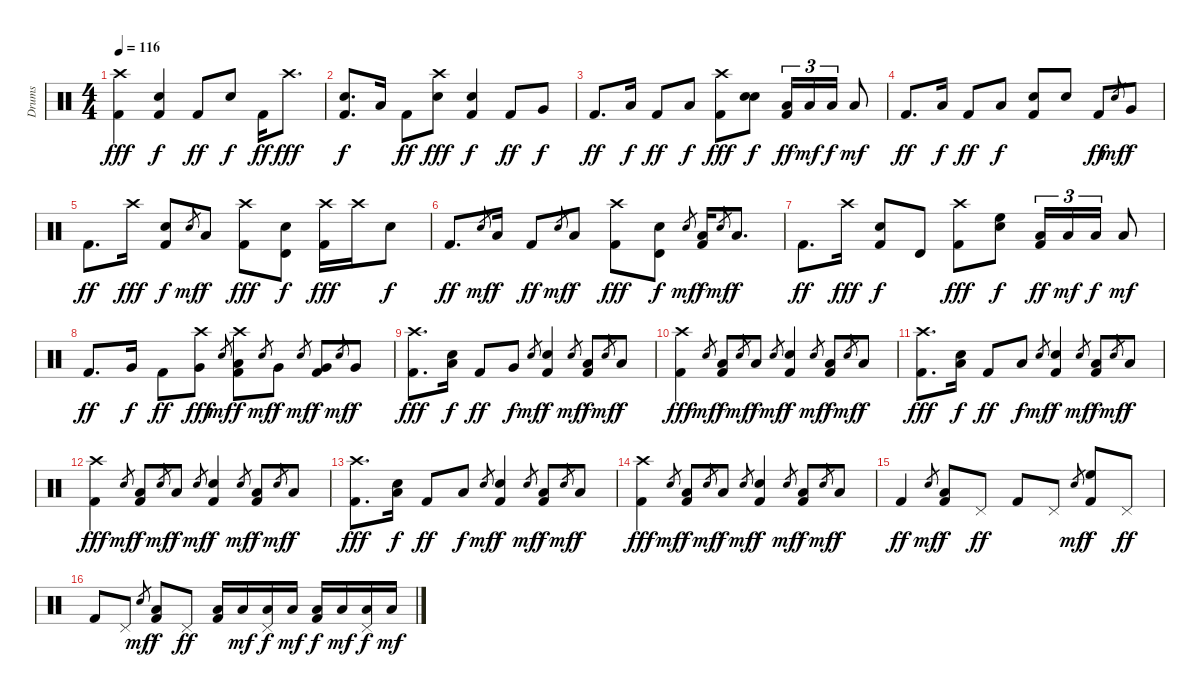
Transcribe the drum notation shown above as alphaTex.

\track ("Drums" "Drums") {instrument percussion}
\staff {score}
\articulation defaults
\ts (4 4)
\tempo 116
\clef neutral
\ks c
("Crash high (hit)" "Kick (hit) 2").4{dy fff} ("Snare (hit)" "Kick (hit) 2").4{dy f} "Kick (hit) 2".8{dy ff} "Snare (hit) 2".8{dy f} "Kick (hit) 2".16{dy ff} "Crash high (hit)".8{d dy fff} |
("Snare (hit)" "Kick (hit) 2").8{d dy f} "Low Floor Tom (hit)".16 "Kick (hit) 2".8{dy ff} ("Crash high (hit)" "Snare (hit) 2").8{dy fff} ("Snare (hit)" "Kick (hit) 2").4{dy f} "Kick (hit) 2".8{dy ff} "Very Low Tom (hit)".8{dy f} |
"Kick (hit) 2".8{d dy ff} "Low Tom (hit)".16{dy f} "Kick (hit) 2".8{dy ff} "Low Floor Tom (hit)".8{dy f} ("Crash high (hit)" "Kick (hit) 2").8{dy fff} ("Snare (hit)" "Snare (hit) 2").8{dy f} ("Low Tom (hit)" "Kick (hit) 2").16{tu (3 2) dy ff} "Low Tom (hit)".16{tu (3 2) dy mf} "Low Tom (hit)".16{tu (3 2) dy f} "Low Tom (hit)".8{dy mf} |
"Kick (hit) 2".8{d dy ff} "Low Floor Tom (hit)".16{dy f} "Kick (hit) 2".8{dy ff} "Low Floor Tom (hit)".8{dy f} ("Snare (hit) 2" "Kick (hit) 2").8 "Snare (hit) 2".8 "Kick (hit) 2".8{dy ff} "Snare (hit)".8{gr dy mf} "Very Low Tom (hit)".8{dy f} |
"Kick (hit) 2".8{d dy ff} "Crash high (hit)".16{dy fff} ("Snare (hit)" "Kick (hit) 2").8{dy f} "Snare (hit)".8{gr dy mf} "Low Floor Tom (hit)".8{dy f} ("Crash high (hit)" "Kick (hit) 2").8{dy fff} ("Snare (hit)" "Timbale high (hit)").8{dy f} ("Crash high (hit)" "Kick (hit) 2").16{dy fff} "Crash high (hit)".16 "Snare (hit)".8{dy f} |
"Kick (hit) 2".8{d dy ff} "Snare (hit)".8{gr dy mf} "Low Floor Tom (hit)".16{dy f} "Kick (hit) 2".8{dy ff} "Snare (hit)".8{gr dy mf} "Low Floor Tom (hit)".8{dy f} ("Crash high (hit)" "Kick (hit) 2").8{dy fff} ("Snare (hit)" "Timbale high (hit)").8{dy f} "Snare (hit)".8{gr dy mf} ("Low Floor Tom (hit)" "Kick (hit) 2").16{dy f} "Snare (hit)".8{gr dy mf} "Low Floor Tom (hit)".8{d dy f} |
"Kick (hit) 2".8{d dy ff} "Crash high (hit)".16{dy fff} ("Snare (hit)" "Kick (hit) 2").8{dy f} "Timbale high (hit)".8 ("Crash high (hit)" "Kick (hit) 2").8{dy fff} ("Snare (hit)" "High Floor Tom (hit)").8{dy f} ("Low Tom (hit)" "Kick (hit) 2").16{tu (3 2) dy ff} "Low Tom (hit)".16{tu (3 2) dy mf} "Low Tom (hit)".16{tu (3 2) dy f} "Low Tom (hit)".8{dy mf} |
"Kick (hit) 2".8{d dy ff} "Very Low Tom (hit)".16{dy f} "Kick (hit) 2".8{dy ff} ("Crash high (hit)" "Very Low Tom (hit)").8{dy fff} "Snare (hit)".8{gr dy mf} ("Crash high (hit)" "Low Floor Tom (hit)" "Kick (hit) 2").8{dy f} "Snare (hit)".8{gr dy mf} "Very Low Tom (hit)".8{dy f} "Snare (hit)".8{gr dy mf} ("Very Low Tom (hit)" "Kick (hit) 2").8{dy f} "Snare (hit)".8{gr dy mf} "Very Low Tom (hit)".8{dy f} |
("Crash high (hit)" "Kick (hit) 2").8{d dy fff} ("Snare (hit)" "Low Floor Tom (hit)").16{dy f} "Kick (hit) 2".8{dy ff} "Very Low Tom (hit)".8{dy f} "Snare (hit)".8{gr dy mf} ("Snare (hit) 2" "Kick (hit) 2").4{dy f} "Snare (hit)".8{gr dy mf} ("Low Tom (hit)" "Kick (hit) 2").8{dy f} "Snare (hit)".8{gr dy mf} "Low Tom (hit)".8{dy f} |
("Crash high (hit)" "Kick (hit) 2").4{dy fff} "Snare (hit)".8{gr dy mf} ("Low Floor Tom (hit)" "Kick (hit) 2").8{dy f} "Snare (hit)".8{gr dy mf} "Low Floor Tom (hit)".8{dy f} "Snare (hit)".8{gr dy mf} ("Snare (hit) 2" "Kick (hit) 2").4{dy f} "Snare (hit)".8{gr dy mf} ("Low Tom (hit)" "Kick (hit) 2").8{dy f} "Snare (hit)".8{gr dy mf} "Low Tom (hit)".8{dy f} |
("Crash high (hit)" "Kick (hit) 2").8{d dy fff} ("Snare (hit)" "Low Floor Tom (hit)").16{dy f} "Kick (hit) 2".8{dy ff} "Low Floor Tom (hit)".8{dy f} "Snare (hit)".8{gr dy mf} ("Snare (hit) 2" "Kick (hit) 2").4{dy f} "Snare (hit)".8{gr dy mf} ("Low Tom (hit)" "Kick (hit) 2").8{dy f} "Snare (hit)".8{gr dy mf} "Low Tom (hit)".8{dy f} |
("Crash high (hit)" "Kick (hit) 2").4{dy fff} "Snare (hit)".8{gr dy mf} ("Low Floor Tom (hit)" "Kick (hit) 2").8{dy f} "Snare (hit)".8{gr dy mf} "Low Floor Tom (hit)".8{dy f} "Snare (hit)".8{gr dy mf} ("Snare (hit) 2" "Kick (hit) 2").4{dy f} "Snare (hit)".8{gr dy mf} ("Low Tom (hit)" "Kick (hit) 2").8{dy f} "Snare (hit)".8{gr dy mf} "Low Tom (hit)".8{dy f} |
("Crash high (hit)" "Kick (hit) 2").8{d dy fff} ("Snare (hit)" "Low Floor Tom (hit)").16{dy f} "Kick (hit) 2".8{dy ff} "Low Floor Tom (hit)".8{dy f} "Snare (hit)".8{gr dy mf} ("Snare (hit) 2" "Kick (hit) 2").4{dy f} "Snare (hit)".8{gr dy mf} ("Low Tom (hit)" "Kick (hit) 2").8{dy f} "Snare (hit)".8{gr dy mf} "Low Tom (hit)".8{dy f} |
("Crash high (hit)" "Kick (hit) 2").4{dy fff} "Snare (hit)".8{gr dy mf} ("Low Floor Tom (hit)" "Kick (hit) 2").8{dy f} "Snare (hit)".8{gr dy mf} "Low Floor Tom (hit)".8{dy f} "Snare (hit)".8{gr dy mf} ("Snare (hit) 2" "Kick (hit) 2").4{dy f} "Snare (hit)".8{gr dy mf} ("Low Tom (hit)" "Kick (hit) 2").8{dy f} "Snare (hit)".8{gr dy mf} "Low Tom (hit)".8{dy f} |
"Kick (hit) 2".4{dy ff} "Snare (hit)".8{gr dy mf} ("Low Tom (hit)" "Kick (hit) 2").8{dy f} "Pedal Hi-Hat (hit)".8{dy ff} "Kick (hit) 2".8 "Pedal Hi-Hat (hit)".8 "Snare (hit)".8{gr dy mf} ("High Floor Tom (hit)" "Kick (hit) 2").8{dy f} "Pedal Hi-Hat (hit)".8{dy ff} |
"Kick (hit) 2".8 "Pedal Hi-Hat (hit)".8 "Snare (hit)".8{gr dy mf} ("Low Tom (hit)" "Kick (hit) 2").8{dy f} "Pedal Hi-Hat (hit)".8{dy ff} ("Low Floor Tom (hit)" "Kick (hit) 2").16 "Low Floor Tom (hit)".16{dy mf} ("Low Floor Tom (hit)" "Pedal Hi-Hat (hit)").16{dy f} "Low Floor Tom (hit)".16{dy mf} ("Low Floor Tom (hit)" "Kick (hit) 2").16{dy f} "Low Floor Tom (hit)".16{dy mf} ("Low Floor Tom (hit)" "Pedal Hi-Hat (hit)").16{dy f} "Low Floor Tom (hit)".16{dy mf}
